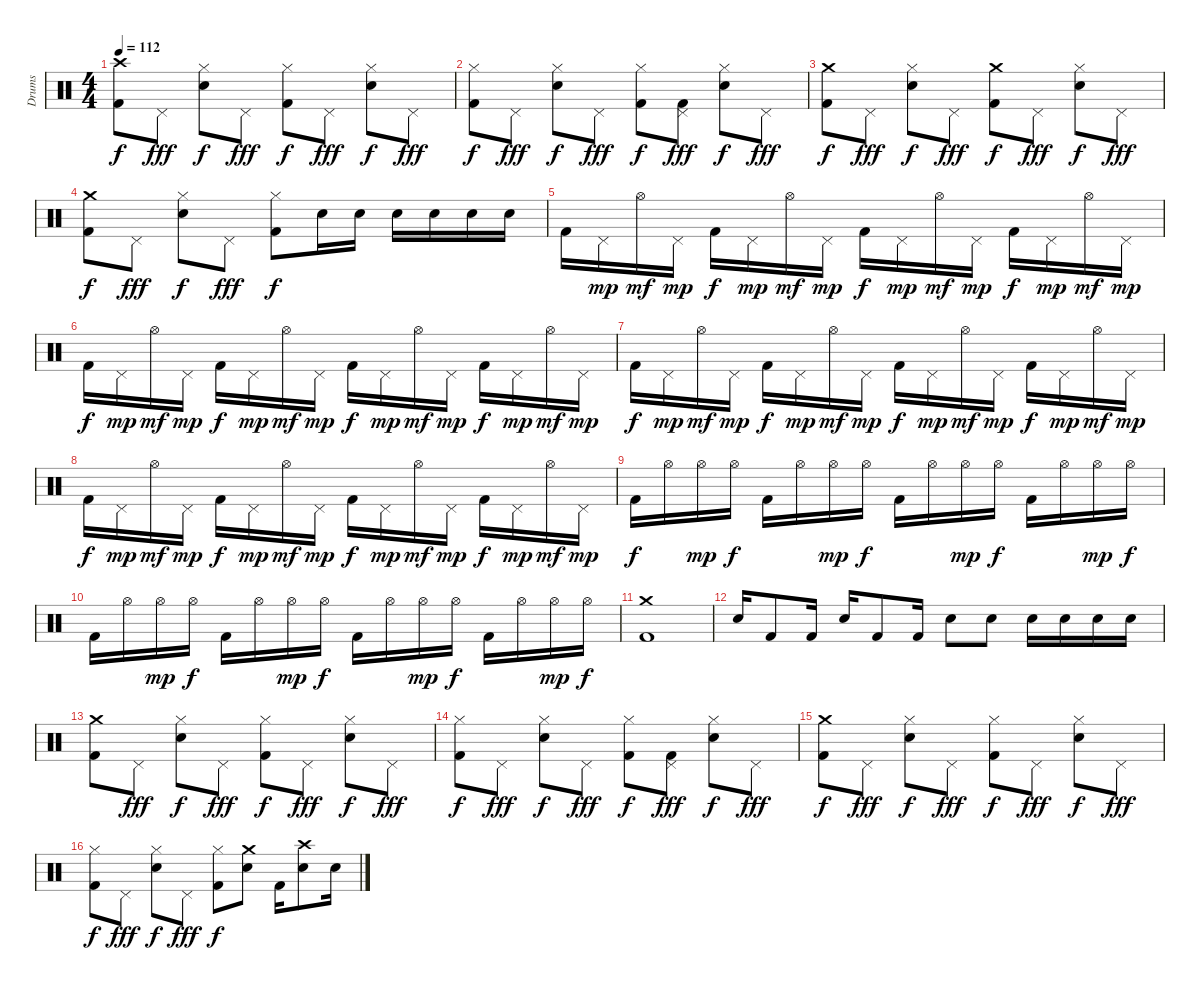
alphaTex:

\track ("Drums" "Drums") {instrument percussion}
\staff {score}
\articulation defaults
\ts (4 4)
\tempo 112
\clef neutral
\ks c
("Kick (hit) 2" "Crash high (hit)").8{dy f} "Pedal Hi-Hat (hit)".8{dy fff} ("Hi-Hat (closed)" "Snare (hit) 2").8{dy f} "Pedal Hi-Hat (hit)".8{dy fff} ("Kick (hit) 2" "Hi-Hat (closed)").8{dy f} "Pedal Hi-Hat (hit)".8{dy fff} ("Hi-Hat (closed)" "Snare (hit) 2").8{dy f} "Pedal Hi-Hat (hit)".8{dy fff} |
("Kick (hit) 2" "Hi-Hat (closed)").8{dy f} "Pedal Hi-Hat (hit)".8{dy fff} ("Hi-Hat (closed)" "Snare (hit) 2").8{dy f} "Pedal Hi-Hat (hit)".8{dy fff} ("Kick (hit) 2" "Hi-Hat (closed)").8{dy f} ("Kick (hit) 2" "Pedal Hi-Hat (hit)").8{dy fff} ("Hi-Hat (closed)" "Snare (hit) 2").8{dy f} "Pedal Hi-Hat (hit)".8{dy fff} |
("Kick (hit) 2" "Crash medium (hit)").8{dy f} "Pedal Hi-Hat (hit)".8{dy fff} ("Hi-Hat (closed)" "Snare (hit) 2").8{dy f} "Pedal Hi-Hat (hit)".8{dy fff} ("Kick (hit) 2" "Crash medium (hit)").8{dy f} "Pedal Hi-Hat (hit)".8{dy fff} ("Hi-Hat (closed)" "Snare (hit) 2").8{dy f} "Pedal Hi-Hat (hit)".8{dy fff} |
("Kick (hit) 2" "Crash medium (hit)").8{dy f} "Pedal Hi-Hat (hit)".8{dy fff} ("Hi-Hat (closed)" "Snare (hit) 2").8{dy f} "Pedal Hi-Hat (hit)".8{dy fff} ("Kick (hit) 2" "Hi-Hat (closed)").8{dy f} "Snare (hit) 2".16 "Snare (hit) 2".16 "Snare (hit) 2".16 "Snare (hit) 2".16 "Snare (hit) 2".16 "Snare (hit) 2".16 |
"Kick (hit) 2".16 "Pedal Hi-Hat (hit)".16{dy mp} "Hi-Hat (open)".16{dy mf} "Pedal Hi-Hat (hit)".16{dy mp} "Kick (hit) 2".16{dy f} "Pedal Hi-Hat (hit)".16{dy mp} "Hi-Hat (open)".16{dy mf} "Pedal Hi-Hat (hit)".16{dy mp} "Kick (hit) 2".16{dy f} "Pedal Hi-Hat (hit)".16{dy mp} "Hi-Hat (open)".16{dy mf} "Pedal Hi-Hat (hit)".16{dy mp} "Kick (hit) 2".16{dy f} "Pedal Hi-Hat (hit)".16{dy mp} "Hi-Hat (open)".16{dy mf} "Pedal Hi-Hat (hit)".16{dy mp} |
"Kick (hit) 2".16{dy f} "Pedal Hi-Hat (hit)".16{dy mp} "Hi-Hat (open)".16{dy mf} "Pedal Hi-Hat (hit)".16{dy mp} "Kick (hit) 2".16{dy f} "Pedal Hi-Hat (hit)".16{dy mp} "Hi-Hat (open)".16{dy mf} "Pedal Hi-Hat (hit)".16{dy mp} "Kick (hit) 2".16{dy f} "Pedal Hi-Hat (hit)".16{dy mp} "Hi-Hat (open)".16{dy mf} "Pedal Hi-Hat (hit)".16{dy mp} "Kick (hit) 2".16{dy f} "Pedal Hi-Hat (hit)".16{dy mp} "Hi-Hat (open)".16{dy mf} "Pedal Hi-Hat (hit)".16{dy mp} |
"Kick (hit) 2".16{dy f} "Pedal Hi-Hat (hit)".16{dy mp} "Hi-Hat (open)".16{dy mf} "Pedal Hi-Hat (hit)".16{dy mp} "Kick (hit) 2".16{dy f} "Pedal Hi-Hat (hit)".16{dy mp} "Hi-Hat (open)".16{dy mf} "Pedal Hi-Hat (hit)".16{dy mp} "Kick (hit) 2".16{dy f} "Pedal Hi-Hat (hit)".16{dy mp} "Hi-Hat (open)".16{dy mf} "Pedal Hi-Hat (hit)".16{dy mp} "Kick (hit) 2".16{dy f} "Pedal Hi-Hat (hit)".16{dy mp} "Hi-Hat (open)".16{dy mf} "Pedal Hi-Hat (hit)".16{dy mp} |
"Kick (hit) 2".16{dy f} "Pedal Hi-Hat (hit)".16{dy mp} "Hi-Hat (open)".16{dy mf} "Pedal Hi-Hat (hit)".16{dy mp} "Kick (hit) 2".16{dy f} "Pedal Hi-Hat (hit)".16{dy mp} "Hi-Hat (open)".16{dy mf} "Pedal Hi-Hat (hit)".16{dy mp} "Kick (hit) 2".16{dy f} "Pedal Hi-Hat (hit)".16{dy mp} "Hi-Hat (open)".16{dy mf} "Pedal Hi-Hat (hit)".16{dy mp} "Kick (hit) 2".16{dy f} "Pedal Hi-Hat (hit)".16{dy mp} "Hi-Hat (open)".16{dy mf} "Pedal Hi-Hat (hit)".16{dy mp} |
"Kick (hit) 2".16{dy f} "Hi-Hat (open)".16 "Hi-Hat (open)".16{dy mp} "Hi-Hat (open)".16{dy f} "Kick (hit) 2".16 "Hi-Hat (open)".16 "Hi-Hat (open)".16{dy mp} "Hi-Hat (open)".16{dy f} "Kick (hit) 2".16 "Hi-Hat (open)".16 "Hi-Hat (open)".16{dy mp} "Hi-Hat (open)".16{dy f} "Kick (hit) 2".16 "Hi-Hat (open)".16 "Hi-Hat (open)".16{dy mp} "Hi-Hat (open)".16{dy f} |
"Kick (hit) 2".16 "Hi-Hat (open)".16 "Hi-Hat (open)".16{dy mp} "Hi-Hat (open)".16{dy f} "Kick (hit) 2".16 "Hi-Hat (open)".16 "Hi-Hat (open)".16{dy mp} "Hi-Hat (open)".16{dy f} "Kick (hit) 2".16 "Hi-Hat (open)".16 "Hi-Hat (open)".16{dy mp} "Hi-Hat (open)".16{dy f} "Kick (hit) 2".16 "Hi-Hat (open)".16 "Hi-Hat (open)".16{dy mp} "Hi-Hat (open)".16{dy f} |
("Kick (hit) 2" "Crash medium (hit)").1 |
"Snare (hit) 2".16 "Kick (hit) 2".8 "Kick (hit) 2".16 "Snare (hit) 2".16 "Kick (hit) 2".8 "Kick (hit) 2".16 "Snare (hit) 2".8 "Snare (hit) 2".8 "Snare (hit) 2".16 "Snare (hit) 2".16 "Snare (hit) 2".16 "Snare (hit) 2".16 |
("Kick (hit) 2" "Crash medium (hit)").8 "Pedal Hi-Hat (hit)".8{dy fff} ("Hi-Hat (closed)" "Snare (hit) 2").8{dy f} "Pedal Hi-Hat (hit)".8{dy fff} ("Kick (hit) 2" "Hi-Hat (closed)").8{dy f} "Pedal Hi-Hat (hit)".8{dy fff} ("Hi-Hat (closed)" "Snare (hit) 2").8{dy f} "Pedal Hi-Hat (hit)".8{dy fff} |
("Kick (hit) 2" "Hi-Hat (closed)").8{dy f} "Pedal Hi-Hat (hit)".8{dy fff} ("Hi-Hat (closed)" "Snare (hit) 2").8{dy f} "Pedal Hi-Hat (hit)".8{dy fff} ("Kick (hit) 2" "Hi-Hat (closed)").8{dy f} ("Kick (hit) 2" "Pedal Hi-Hat (hit)").8{dy fff} ("Hi-Hat (closed)" "Snare (hit) 2").8{dy f} "Pedal Hi-Hat (hit)".8{dy fff} |
("Kick (hit) 2" "Crash medium (hit)").8{dy f} "Pedal Hi-Hat (hit)".8{dy fff} ("Hi-Hat (closed)" "Snare (hit) 2").8{dy f} "Pedal Hi-Hat (hit)".8{dy fff} ("Kick (hit) 2" "Hi-Hat (closed)").8{dy f} "Pedal Hi-Hat (hit)".8{dy fff} ("Hi-Hat (closed)" "Snare (hit) 2").8{dy f} "Pedal Hi-Hat (hit)".8{dy fff} |
("Kick (hit) 2" "Hi-Hat (closed)").8{dy f} "Pedal Hi-Hat (hit)".8{dy fff} ("Hi-Hat (closed)" "Snare (hit) 2").8{dy f} "Pedal Hi-Hat (hit)".8{dy fff} ("Kick (hit) 2" "Hi-Hat (closed)").8{dy f} ("Crash medium (hit)" "Snare (hit) 2").8 "Kick (hit) 2".16 ("Crash high (hit)" "Snare (hit) 2").8 "Snare (hit) 2".16
